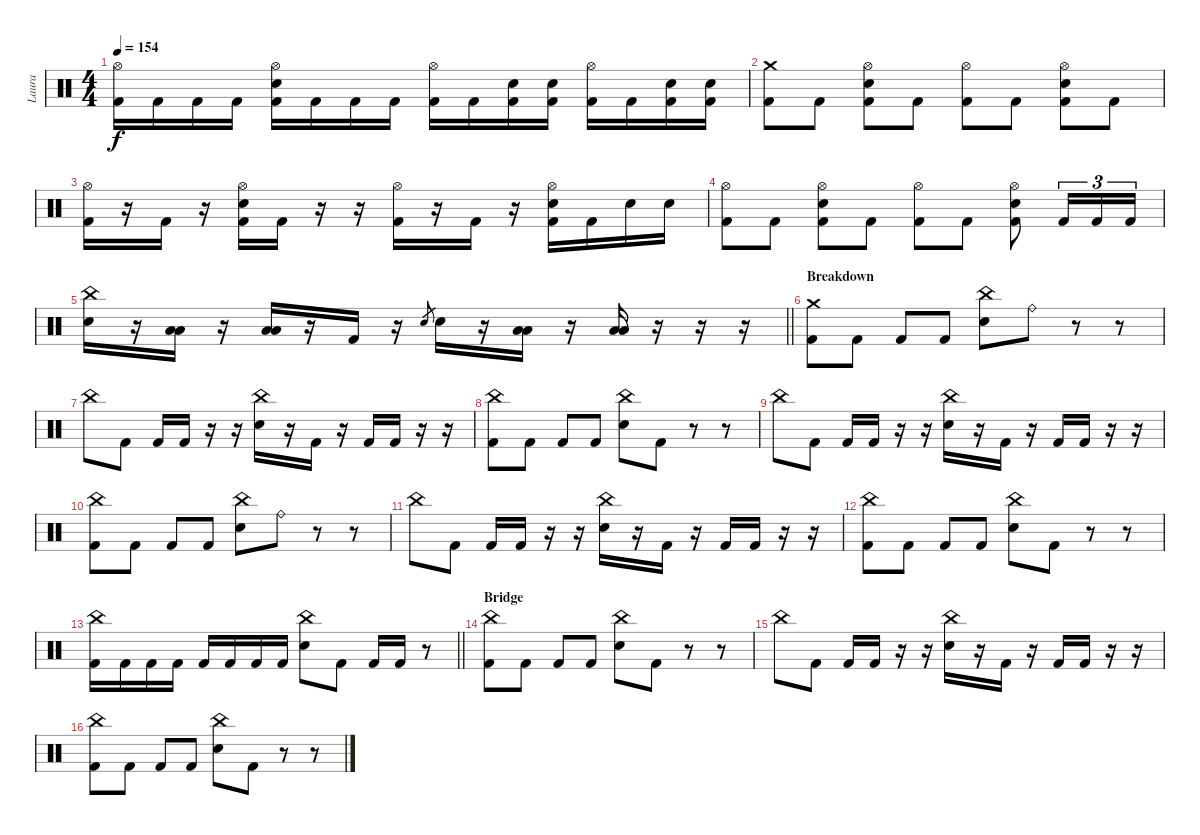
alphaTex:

\track ("Laura" "Laura") {instrument percussion}
\staff {score}
\articulation defaults
\ts (4 4)
\tempo 154
\clef neutral
\ks c
("Hi-Hat (open)" "Kick (hit) 2").16{dy f} "Kick (hit) 2".16 "Kick (hit) 2".16 "Kick (hit) 2".16 ("Hi-Hat (open)" "Electric Snare (hit)" "Kick (hit) 2").16 "Kick (hit) 2".16 "Kick (hit) 2".16 "Kick (hit) 2".16 ("Hi-Hat (open)" "Kick (hit) 2").16 "Kick (hit) 2".16 ("Electric Snare (hit)" "Kick (hit) 2").16 ("Electric Snare (hit)" "Kick (hit) 2").16 ("Hi-Hat (open)" "Kick (hit) 2").16 "Kick (hit) 2".16 ("Electric Snare (hit)" "Kick (hit) 2").16 ("Electric Snare (hit)" "Kick (hit) 2").16 |
("Crash medium (hit)" "Kick (hit) 2").8 "Kick (hit) 2".8 ("Hi-Hat (open)" "Electric Snare (hit)" "Kick (hit) 2").8 "Kick (hit) 2".8 ("Hi-Hat (open)" "Kick (hit) 2").8 "Kick (hit) 2".8 ("Hi-Hat (open)" "Electric Snare (hit)" "Kick (hit) 2").8 "Kick (hit) 2".8 |
("Hi-Hat (open)" "Kick (hit) 2").16 r.16 "Kick (hit) 2".16 r.16 ("Hi-Hat (open)" "Electric Snare (hit)" "Kick (hit) 2").16 "Kick (hit) 2".16 r.16 r.16 ("Hi-Hat (open)" "Kick (hit) 2").16 r.16 "Kick (hit) 2".16 r.16 ("Hi-Hat (open)" "Electric Snare (hit)" "Kick (hit) 2").16 "Kick (hit) 2".16 "Electric Snare (hit)".16 "Electric Snare (hit)".16 |
("Hi-Hat (open)" "Kick (hit) 2").8 "Kick (hit) 2".8 ("Hi-Hat (open)" "Electric Snare (hit)" "Kick (hit) 2").8 "Kick (hit) 2".8 ("Hi-Hat (open)" "Kick (hit) 2").8 "Kick (hit) 2".8 ("Hi-Hat (open)" "Electric Snare (hit)" "Kick (hit) 2").8 "Kick (hit) 2".16{tu (3 2)} "Kick (hit) 2".16{tu (3 2)} "Kick (hit) 2".16{tu (3 2)} |
\barLineRight lightlight
("China (hit)" "Electric Snare (hit)").16 r.16 ("Low Floor Tom (hit)" "Low Floor Tom (hit)").16 r.16 ("Low Tom (hit)" "Low Tom (hit)").16 r.16 "Kick (hit) 2".16 r.16 "Electric Snare (hit)".8{gr} "Electric Snare (hit)".16 r.16 ("Low Floor Tom (hit)" "Low Floor Tom (hit)").16 r.16 ("Low Tom (hit)" "Low Tom (hit)").16 r.16 r.16 r.16 |
\section ("" "Breakdown")
("Crash medium (hit)" "Kick (hit) 2").8 "Kick (hit) 2".8 "Kick (hit) 2".8 "Kick (hit) 2".8 ("China (hit)" "Electric Snare (hit)").8 "Ride (bell)".8 r.8 r.8 |
"China (hit)".8 "Kick (hit) 2".8 "Kick (hit) 2".16 "Kick (hit) 2".16 r.16 r.16 ("China (hit)" "Electric Snare (hit)").16 r.16 "Kick (hit) 2".16 r.16 "Kick (hit) 2".16 "Kick (hit) 2".16 r.16 r.16 |
("China (hit)" "Kick (hit) 2").8 "Kick (hit) 2".8 "Kick (hit) 2".8 "Kick (hit) 2".8 ("China (hit)" "Electric Snare (hit)").8 "Kick (hit) 2".8 r.8 r.8 |
"China (hit)".8 "Kick (hit) 2".8 "Kick (hit) 2".16 "Kick (hit) 2".16 r.16 r.16 ("China (hit)" "Electric Snare (hit)").16 r.16 "Kick (hit) 2".16 r.16 "Kick (hit) 2".16 "Kick (hit) 2".16 r.16 r.16 |
("China (hit)" "Kick (hit) 2").8 "Kick (hit) 2".8 "Kick (hit) 2".8 "Kick (hit) 2".8 ("China (hit)" "Electric Snare (hit)").8 "Ride (bell)".8 r.8 r.8 |
"China (hit)".8 "Kick (hit) 2".8 "Kick (hit) 2".16 "Kick (hit) 2".16 r.16 r.16 ("China (hit)" "Electric Snare (hit)").16 r.16 "Kick (hit) 2".16 r.16 "Kick (hit) 2".16 "Kick (hit) 2".16 r.16 r.16 |
("China (hit)" "Kick (hit) 2").8 "Kick (hit) 2".8 "Kick (hit) 2".8 "Kick (hit) 2".8 ("China (hit)" "Electric Snare (hit)").8 "Kick (hit) 2".8 r.8 r.8 |
\barLineRight lightlight
("China (hit)" "Kick (hit) 2").16 "Kick (hit) 2".16 "Kick (hit) 2".16 "Kick (hit) 2".16 "Kick (hit) 2".16 "Kick (hit) 2".16 "Kick (hit) 2".16 "Kick (hit) 2".16 ("China (hit)" "Electric Snare (hit)").8 "Kick (hit) 2".8 "Kick (hit) 2".16 "Kick (hit) 2".16 r.8 |
\section ("" "Bridge")
("China (hit)" "Kick (hit) 2").8 "Kick (hit) 2".8 "Kick (hit) 2".8 "Kick (hit) 2".8 ("China (hit)" "Electric Snare (hit)").8 "Kick (hit) 2".8 r.8 r.8 |
"China (hit)".8 "Kick (hit) 2".8 "Kick (hit) 2".16 "Kick (hit) 2".16 r.16 r.16 ("China (hit)" "Electric Snare (hit)").16 r.16 "Kick (hit) 2".16 r.16 "Kick (hit) 2".16 "Kick (hit) 2".16 r.16 r.16 |
("China (hit)" "Kick (hit) 2").8 "Kick (hit) 2".8 "Kick (hit) 2".8 "Kick (hit) 2".8 ("China (hit)" "Electric Snare (hit)").8 "Kick (hit) 2".8 r.8 r.8
